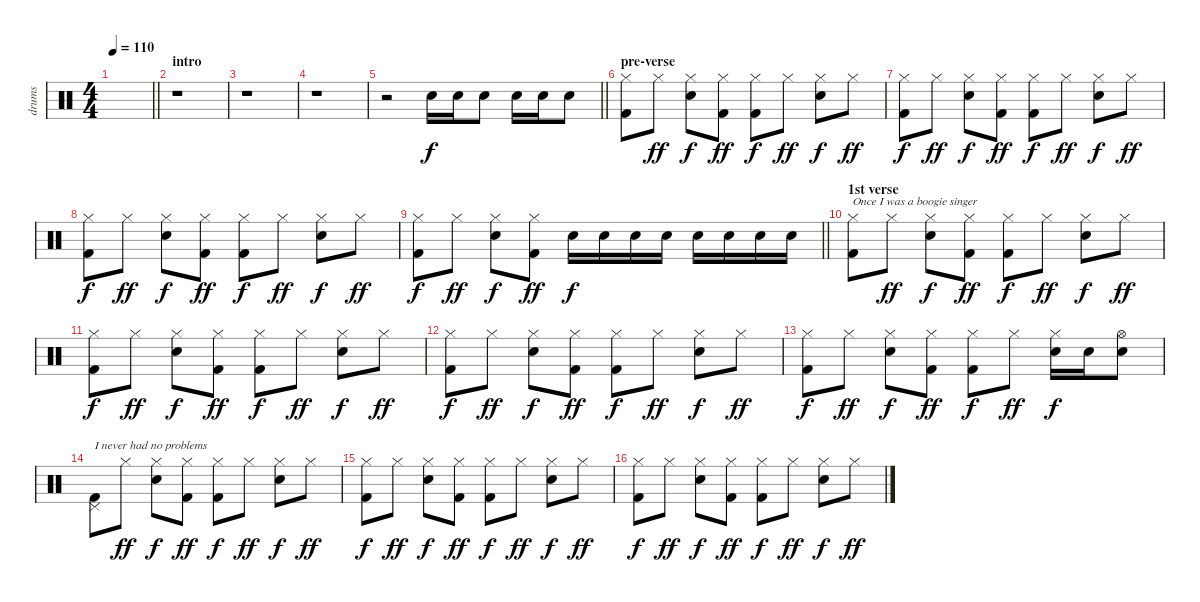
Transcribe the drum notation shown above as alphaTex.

\track ("drums" "drums") {instrument percussion}
\staff {score}
\articulation defaults
\ts (4 4)
\tempo 110
\clef neutral
\barLineRight lightlight
\ks c
|
\section ("" "intro")
\ks aminor
r.1 |
r.1 |
r.1 |
\barLineRight lightlight
r.2 "Snare (hit) 2".16 "Snare (hit) 2".16 "Snare (hit) 2".8 "Snare (hit) 2".16 "Snare (hit) 2".16 "Snare (hit) 2".8 |
\section ("" "pre-verse")
("Hi-Hat (closed)" "Kick (hit) 2").8 "Hi-Hat (closed)".8{dy ff} ("Hi-Hat (closed)" "Snare (hit) 2").8{dy f} ("Hi-Hat (closed)" "Kick (hit) 2").8{dy ff} ("Hi-Hat (closed)" "Kick (hit) 2").8{dy f} "Hi-Hat (closed)".8{dy ff} ("Hi-Hat (closed)" "Snare (hit) 2").8{dy f} "Hi-Hat (closed)".8{dy ff} |
("Hi-Hat (closed)" "Kick (hit) 2").8{dy f} "Hi-Hat (closed)".8{dy ff} ("Hi-Hat (closed)" "Snare (hit) 2").8{dy f} ("Hi-Hat (closed)" "Kick (hit) 2").8{dy ff} ("Hi-Hat (closed)" "Kick (hit) 2").8{dy f} "Hi-Hat (closed)".8{dy ff} ("Hi-Hat (closed)" "Snare (hit) 2").8{dy f} "Hi-Hat (closed)".8{dy ff} |
("Hi-Hat (closed)" "Kick (hit) 2").8{dy f} "Hi-Hat (closed)".8{dy ff} ("Hi-Hat (closed)" "Snare (hit) 2").8{dy f} ("Hi-Hat (closed)" "Kick (hit) 2").8{dy ff} ("Hi-Hat (closed)" "Kick (hit) 2").8{dy f} "Hi-Hat (closed)".8{dy ff} ("Hi-Hat (closed)" "Snare (hit) 2").8{dy f} "Hi-Hat (closed)".8{dy ff} |
\barLineRight lightlight
("Hi-Hat (closed)" "Kick (hit) 2").8{dy f} "Hi-Hat (closed)".8{dy ff} ("Hi-Hat (closed)" "Snare (hit) 2").8{dy f} ("Hi-Hat (closed)" "Kick (hit) 2").8{dy ff} "Snare (hit) 2".16{dy f} "Snare (hit) 2".16 "Snare (hit) 2".16 "Snare (hit) 2".16 "Snare (hit) 2".16 "Snare (hit) 2".16 "Snare (hit) 2".16 "Snare (hit) 2".16 |
\section ("" "1st verse")
("Hi-Hat (closed)" "Kick (hit) 2").8{txt "Once I was a boogie singer"} "Hi-Hat (closed)".8{dy ff} ("Hi-Hat (closed)" "Snare (hit) 2").8{dy f} ("Hi-Hat (closed)" "Kick (hit) 2").8{dy ff} ("Hi-Hat (closed)" "Kick (hit) 2").8{dy f} "Hi-Hat (closed)".8{dy ff} ("Hi-Hat (closed)" "Snare (hit) 2").8{dy f} "Hi-Hat (closed)".8{dy ff} |
("Hi-Hat (closed)" "Kick (hit) 2").8{dy f} "Hi-Hat (closed)".8{dy ff} ("Hi-Hat (closed)" "Snare (hit) 2").8{dy f} ("Hi-Hat (closed)" "Kick (hit) 2").8{dy ff} ("Hi-Hat (closed)" "Kick (hit) 2").8{dy f} "Hi-Hat (closed)".8{dy ff} ("Hi-Hat (closed)" "Snare (hit) 2").8{dy f} "Hi-Hat (closed)".8{dy ff} |
("Hi-Hat (closed)" "Kick (hit) 2").8{dy f} "Hi-Hat (closed)".8{dy ff} ("Hi-Hat (closed)" "Snare (hit) 2").8{dy f} ("Hi-Hat (closed)" "Kick (hit) 2").8{dy ff} ("Hi-Hat (closed)" "Kick (hit) 2").8{dy f} "Hi-Hat (closed)".8{dy ff} ("Hi-Hat (closed)" "Snare (hit) 2").8{dy f} "Hi-Hat (closed)".8{dy ff} |
("Hi-Hat (closed)" "Kick (hit) 2").8{dy f} "Hi-Hat (closed)".8{dy ff} ("Hi-Hat (closed)" "Snare (hit) 2").8{dy f} ("Hi-Hat (closed)" "Kick (hit) 2").8{dy ff} ("Hi-Hat (closed)" "Kick (hit) 2").8{dy f} "Hi-Hat (closed)".8{dy ff} ("Hi-Hat (closed)" "Snare (hit) 2").16{dy f} "Snare (hit) 2".16 ("Hi-Hat (open)" "Snare (hit) 2").8 |
("Pedal Hi-Hat (hit)" "Kick (hit) 2").8{txt "I never had no problems"} "Hi-Hat (closed)".8{dy ff} ("Hi-Hat (closed)" "Snare (hit) 2").8{dy f} ("Hi-Hat (closed)" "Kick (hit) 2").8{dy ff} ("Hi-Hat (closed)" "Kick (hit) 2").8{dy f} "Hi-Hat (closed)".8{dy ff} ("Hi-Hat (closed)" "Snare (hit) 2").8{dy f} "Hi-Hat (closed)".8{dy ff} |
("Hi-Hat (closed)" "Kick (hit) 2").8{dy f} "Hi-Hat (closed)".8{dy ff} ("Hi-Hat (closed)" "Snare (hit) 2").8{dy f} ("Hi-Hat (closed)" "Kick (hit) 2").8{dy ff} ("Hi-Hat (closed)" "Kick (hit) 2").8{dy f} "Hi-Hat (closed)".8{dy ff} ("Hi-Hat (closed)" "Snare (hit) 2").8{dy f} "Hi-Hat (closed)".8{dy ff} |
("Hi-Hat (closed)" "Kick (hit) 2").8{dy f} "Hi-Hat (closed)".8{dy ff} ("Hi-Hat (closed)" "Snare (hit) 2").8{dy f} ("Hi-Hat (closed)" "Kick (hit) 2").8{dy ff} ("Hi-Hat (closed)" "Kick (hit) 2").8{dy f} "Hi-Hat (closed)".8{dy ff} ("Hi-Hat (closed)" "Snare (hit) 2").8{dy f} "Hi-Hat (closed)".8{dy ff}
